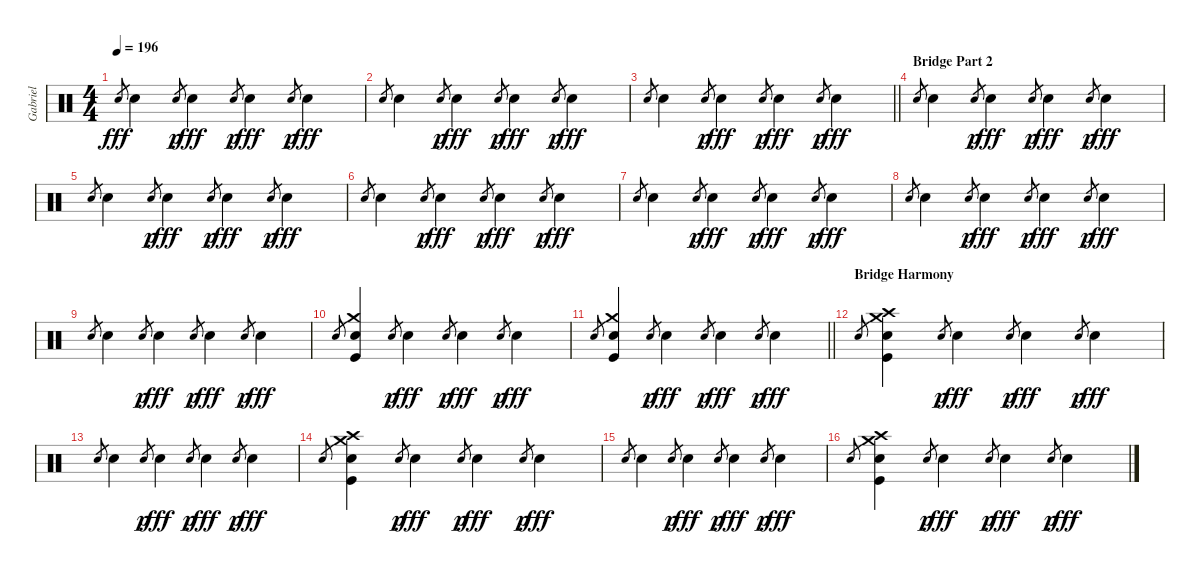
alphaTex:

\track ("Gabriel" "Gabriel") {instrument percussion}
\staff {score}
\articulation defaults
\ts (4 4)
\tempo 196
\clef neutral
\ks aminor "Hand Clap (hit)".8{gr dy fff} "Hand Clap (hit)".4 "Hand Clap (hit)".8{gr dy p} "Hand Clap (hit)".4{dy fff} "Hand Clap (hit)".8{gr dy p} "Hand Clap (hit)".4{dy fff} "Hand Clap (hit)".8{gr dy p} "Hand Clap (hit)".4{dy fff}
|
"Hand Clap (hit)".8{gr} "Hand Clap (hit)".4 "Hand Clap (hit)".8{gr dy p} "Hand Clap (hit)".4{dy fff} "Hand Clap (hit)".8{gr dy p} "Hand Clap (hit)".4{dy fff} "Hand Clap (hit)".8{gr dy p} "Hand Clap (hit)".4{dy fff} |
\barLineRight lightlight "Hand Clap (hit)".8{gr} "Hand Clap (hit)".4 "Hand Clap (hit)".8{gr dy p} "Hand Clap (hit)".4{dy fff} "Hand Clap (hit)".8{gr dy p} "Hand Clap (hit)".4{dy fff} "Hand Clap (hit)".8{gr dy p} "Hand Clap (hit)".4{dy fff}
|
\section ("" "Bridge Part 2")
"Hand Clap (hit)".8{gr} "Hand Clap (hit)".4 "Hand Clap (hit)".8{gr dy p} "Hand Clap (hit)".4{dy fff} "Hand Clap (hit)".8{gr dy p} "Hand Clap (hit)".4{dy fff} "Hand Clap (hit)".8{gr dy p} "Hand Clap (hit)".4{dy fff} |
"Hand Clap (hit)".8{gr} "Hand Clap (hit)".4 "Hand Clap (hit)".8{gr dy p} "Hand Clap (hit)".4{dy fff} "Hand Clap (hit)".8{gr dy p} "Hand Clap (hit)".4{dy fff} "Hand Clap (hit)".8{gr dy p} "Hand Clap (hit)".4{dy fff} |
"Hand Clap (hit)".8{gr} "Hand Clap (hit)".4 "Hand Clap (hit)".8{gr dy p} "Hand Clap (hit)".4{dy fff} "Hand Clap (hit)".8{gr dy p} "Hand Clap (hit)".4{dy fff} "Hand Clap (hit)".8{gr dy p} "Hand Clap (hit)".4{dy fff} |
"Hand Clap (hit)".8{gr} "Hand Clap (hit)".4 "Hand Clap (hit)".8{gr dy p} "Hand Clap (hit)".4{dy fff} "Hand Clap (hit)".8{gr dy p} "Hand Clap (hit)".4{dy fff} "Hand Clap (hit)".8{gr dy p} "Hand Clap (hit)".4{dy fff} |
"Hand Clap (hit)".8{gr} "Hand Clap (hit)".4 "Hand Clap (hit)".8{gr dy p} "Hand Clap (hit)".4{dy fff} "Hand Clap (hit)".8{gr dy p} "Hand Clap (hit)".4{dy fff} "Hand Clap (hit)".8{gr dy p} "Hand Clap (hit)".4{dy fff} |
"Hand Clap (hit)".8{gr} "Hand Clap (hit)".4 "Hand Clap (hit)".8{gr dy p} "Hand Clap (hit)".4{dy fff} "Hand Clap (hit)".8{gr dy p} "Hand Clap (hit)".4{dy fff} "Hand Clap (hit)".8{gr dy p} "Hand Clap (hit)".4{dy fff} |
"Hand Clap (hit)".8{gr} ("Crash medium (hit)" "Kick (hit)" "Hand Clap (hit)").4 "Hand Clap (hit)".8{gr dy p} "Hand Clap (hit)".4{dy fff} "Hand Clap (hit)".8{gr dy p} "Hand Clap (hit)".4{dy fff} "Hand Clap (hit)".8{gr dy p} "Hand Clap (hit)".4{dy fff} |
\barLineRight lightlight "Hand Clap (hit)".8{gr}
("Crash medium (hit)" "Kick (hit)" "Hand Clap (hit)").4 "Hand Clap (hit)".8{gr dy p} "Hand Clap (hit)".4{dy fff} "Hand Clap (hit)".8{gr dy p} "Hand Clap (hit)".4{dy fff} "Hand Clap (hit)".8{gr dy p} "Hand Clap (hit)".4{dy fff} |
\section ("" "Bridge Harmony")
"Hand Clap (hit)".8{gr} ("Crash medium (hit)" "Crash high (hit)" "Kick (hit)" "Hand Clap (hit)").4 "Hand Clap (hit)".8{gr dy p} "Hand Clap (hit)".4{dy fff} "Hand Clap (hit)".8{gr dy p} "Hand Clap (hit)".4{dy fff} "Hand Clap (hit)".8{gr dy p} "Hand Clap (hit)".4{dy fff} |
"Hand Clap (hit)".8{gr} "Hand Clap (hit)".4 "Hand Clap (hit)".8{gr dy p} "Hand Clap (hit)".4{dy fff} "Hand Clap (hit)".8{gr dy p} "Hand Clap (hit)".4{dy fff} "Hand Clap (hit)".8{gr dy p} "Hand Clap (hit)".4{dy fff} |
"Hand Clap (hit)".8{gr} ("Crash medium (hit)" "Crash high (hit)" "Kick (hit)" "Hand Clap (hit)").4 "Hand Clap (hit)".8{gr dy p} "Hand Clap (hit)".4{dy fff} "Hand Clap (hit)".8{gr dy p} "Hand Clap (hit)".4{dy fff} "Hand Clap (hit)".8{gr dy p} "Hand Clap (hit)".4{dy fff} |
"Hand Clap (hit)".8{gr} "Hand Clap (hit)".4 "Hand Clap (hit)".8{gr dy p} "Hand Clap (hit)".4{dy fff} "Hand Clap (hit)".8{gr dy p} "Hand Clap (hit)".4{dy fff} "Hand Clap (hit)".8{gr dy p} "Hand Clap (hit)".4{dy fff} |
"Hand Clap (hit)".8{gr} ("Crash medium (hit)" "Crash high (hit)" "Kick (hit)" "Hand Clap (hit)").4 "Hand Clap (hit)".8{gr dy p} "Hand Clap (hit)".4{dy fff} "Hand Clap (hit)".8{gr dy p} "Hand Clap (hit)".4{dy fff} "Hand Clap (hit)".8{gr dy p} "Hand Clap (hit)".4{dy fff}
